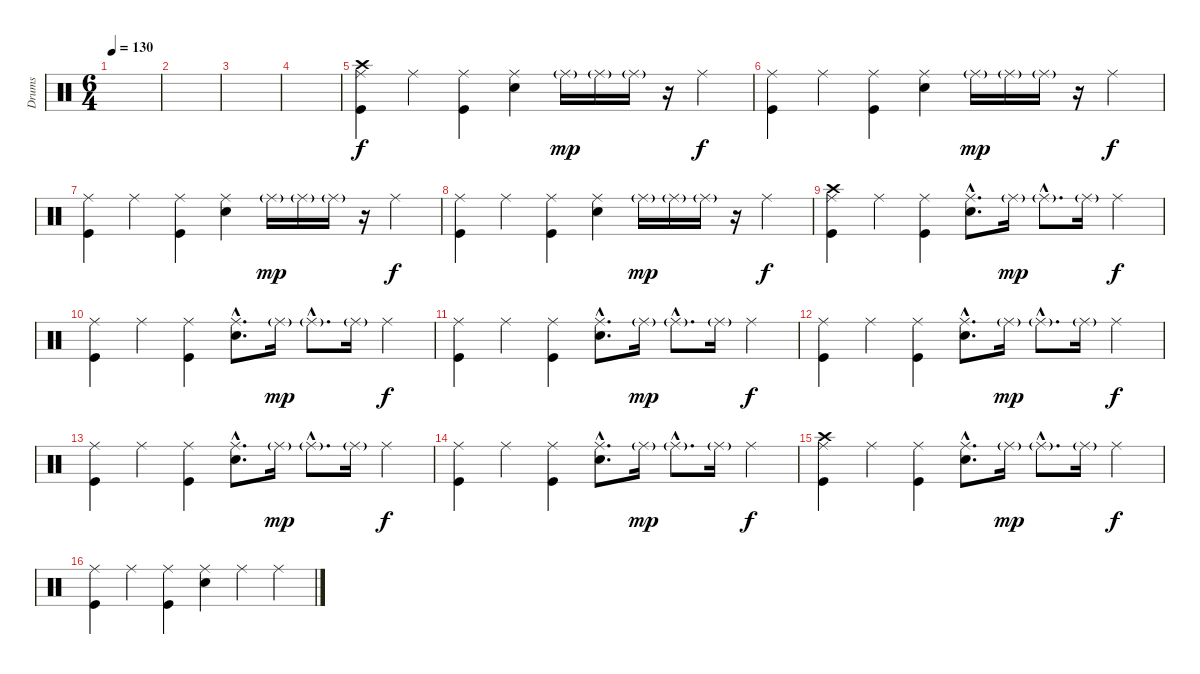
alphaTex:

\track ("Drums" "Drums") {instrument percussion}
\staff {score}
\articulation defaults
\ts (6 4)
\tempo 130
\clef neutral
\ks c
|
|
|
|
\section ("" "")
("Ride (middle)" "Crash high (hit)" "Kick (hit)").4 "Ride (middle)".4 ("Ride (middle)" "Kick (hit)").4 ("Ride (middle)" "Snare (hit) 2").4 "Ride (middle)"{g}.16{dy mp} "Ride (middle)"{g}.16 "Ride (middle)"{g}.16 r.16 "Ride (middle)".4{dy f} |
("Ride (middle)" "Kick (hit)").4 "Ride (middle)".4 ("Ride (middle)" "Kick (hit)").4 ("Ride (middle)" "Snare (hit) 2").4 "Ride (middle)"{g}.16{dy mp} "Ride (middle)"{g}.16 "Ride (middle)"{g}.16 r.16 "Ride (middle)".4{dy f} |
("Ride (middle)" "Kick (hit)").4 "Ride (middle)".4 ("Ride (middle)" "Kick (hit)").4 ("Ride (middle)" "Snare (hit) 2").4 "Ride (middle)"{g}.16{dy mp} "Ride (middle)"{g}.16 "Ride (middle)"{g}.16 r.16 "Ride (middle)".4{dy f} |
("Ride (middle)" "Kick (hit)").4 "Ride (middle)".4 ("Ride (middle)" "Kick (hit)").4 ("Ride (middle)" "Snare (hit) 2").4 "Ride (middle)"{g}.16{dy mp} "Ride (middle)"{g}.16 "Ride (middle)"{g}.16 r.16 "Ride (middle)".4{dy f} |
("Ride (middle)" "Crash high (hit)" "Kick (hit)").4 "Ride (middle)".4 ("Ride (middle)" "Kick (hit)").4 ("Ride (middle)"{hac} "Snare (hit) 2"{hac}).8{d} "Ride (middle)"{g}.16{dy mp} "Ride (middle)"{g hac}.8{d} "Ride (middle)"{g}.16 "Ride (middle)".4{dy f} |
("Ride (middle)" "Kick (hit)").4 "Ride (middle)".4 ("Ride (middle)" "Kick (hit)").4 ("Ride (middle)"{hac} "Snare (hit) 2"{hac}).8{d} "Ride (middle)"{g}.16{dy mp} "Ride (middle)"{g hac}.8{d} "Ride (middle)"{g}.16 "Ride (middle)".4{dy f} |
("Ride (middle)" "Kick (hit)").4 "Ride (middle)".4 ("Ride (middle)" "Kick (hit)").4 ("Ride (middle)"{hac} "Snare (hit) 2"{hac}).8{d} "Ride (middle)"{g}.16{dy mp} "Ride (middle)"{g hac}.8{d} "Ride (middle)"{g}.16 "Ride (middle)".4{dy f} |
("Ride (middle)" "Kick (hit)").4 "Ride (middle)".4 ("Ride (middle)" "Kick (hit)").4 ("Ride (middle)"{hac} "Snare (hit) 2"{hac}).8{d} "Ride (middle)"{g}.16{dy mp} "Ride (middle)"{g hac}.8{d} "Ride (middle)"{g}.16 "Ride (middle)".4{dy f} |
("Ride (middle)" "Kick (hit)").4 "Ride (middle)".4 ("Ride (middle)" "Kick (hit)").4 ("Ride (middle)"{hac} "Snare (hit) 2"{hac}).8{d} "Ride (middle)"{g}.16{dy mp} "Ride (middle)"{g hac}.8{d} "Ride (middle)"{g}.16 "Ride (middle)".4{dy f} |
("Ride (middle)" "Kick (hit)").4 "Ride (middle)".4 ("Ride (middle)" "Kick (hit)").4 ("Ride (middle)"{hac} "Snare (hit) 2"{hac}).8{d} "Ride (middle)"{g}.16{dy mp} "Ride (middle)"{g hac}.8{d} "Ride (middle)"{g}.16 "Ride (middle)".4{dy f} |
("Ride (middle)" "Crash high (hit)" "Kick (hit)").4 "Ride (middle)".4 ("Ride (middle)" "Kick (hit)").4 ("Ride (middle)"{hac} "Snare (hit) 2"{hac}).8{d} "Ride (middle)"{g}.16{dy mp} "Ride (middle)"{g hac}.8{d} "Ride (middle)"{g}.16 "Ride (middle)".4{dy f} |
\section ("" "")
("Ride (middle)" "Kick (hit)").4 "Ride (middle)".4 ("Ride (middle)" "Kick (hit)").4 ("Ride (middle)" "Snare (hit) 2").4 "Ride (middle)".4 "Ride (middle)".4
